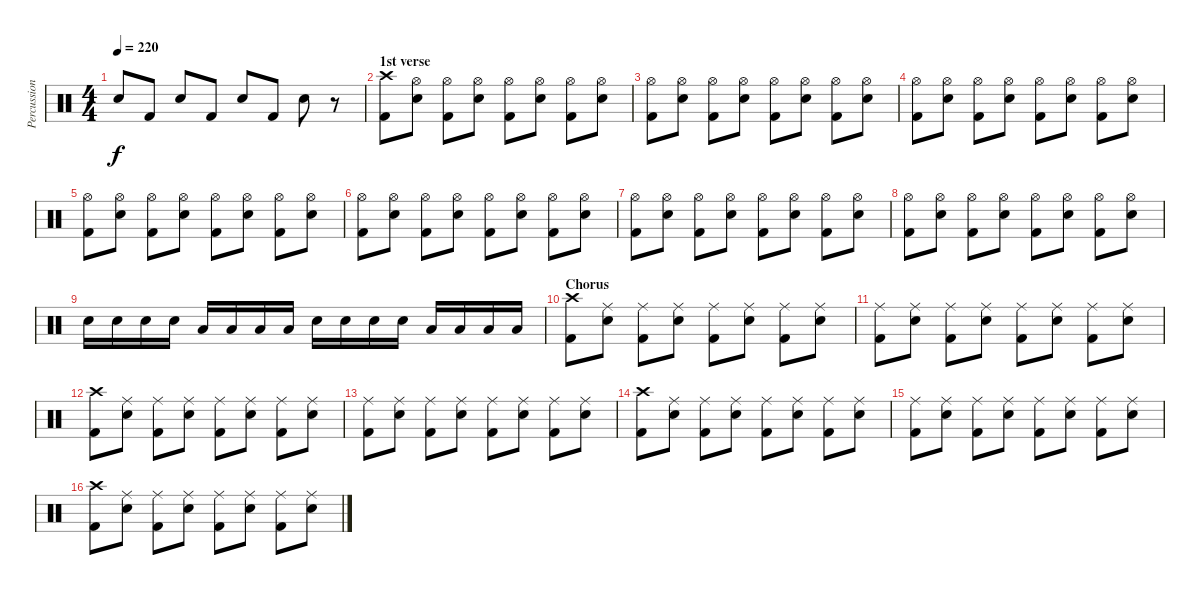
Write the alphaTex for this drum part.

\track ("Percussion" "Percussion") {instrument percussion}
\staff {score}
\articulation defaults
\ts (4 4)
\tempo 220
\clef neutral
\ks c "Electric Snare (hit)".8{dy f} "Kick (hit) 2".8 "Electric Snare (hit)".8 "Kick (hit) 2".8 "Electric Snare (hit)".8 "Kick (hit) 2".8 "Electric Snare (hit)".8
r.8 |
\section ("" "1st verse")
("Crash high (hit)" "Kick (hit) 2").8 ("Hi-Hat (open)" "Electric Snare (hit)").8 ("Hi-Hat (open)" "Kick (hit) 2").8 ("Hi-Hat (open)" "Electric Snare (hit)").8 ("Hi-Hat (open)" "Kick (hit) 2").8 ("Hi-Hat (open)" "Electric Snare (hit)").8 ("Hi-Hat (open)" "Kick (hit) 2").8 ("Hi-Hat (open)" "Electric Snare (hit)").8 |
("Hi-Hat (open)" "Kick (hit) 2").8 ("Hi-Hat (open)" "Electric Snare (hit)").8 ("Hi-Hat (open)" "Kick (hit) 2").8 ("Hi-Hat (open)" "Electric Snare (hit)").8 ("Hi-Hat (open)" "Kick (hit) 2").8 ("Hi-Hat (open)" "Electric Snare (hit)").8 ("Hi-Hat (open)" "Kick (hit) 2").8 ("Hi-Hat (open)" "Electric Snare (hit)").8 |
("Hi-Hat (open)" "Kick (hit) 2").8 ("Hi-Hat (open)" "Electric Snare (hit)").8 ("Hi-Hat (open)" "Kick (hit) 2").8 ("Hi-Hat (open)" "Electric Snare (hit)").8 ("Hi-Hat (open)" "Kick (hit) 2").8 ("Hi-Hat (open)" "Electric Snare (hit)").8 ("Hi-Hat (open)" "Kick (hit) 2").8 ("Hi-Hat (open)" "Electric Snare (hit)").8 |
("Hi-Hat (open)" "Kick (hit) 2").8 ("Hi-Hat (open)" "Electric Snare (hit)").8 ("Hi-Hat (open)" "Kick (hit) 2").8 ("Hi-Hat (open)" "Electric Snare (hit)").8 ("Hi-Hat (open)" "Kick (hit) 2").8 ("Hi-Hat (open)" "Electric Snare (hit)").8 ("Hi-Hat (open)" "Kick (hit) 2").8 ("Hi-Hat (open)" "Electric Snare (hit)").8 |
("Hi-Hat (open)" "Kick (hit) 2").8 ("Hi-Hat (open)" "Electric Snare (hit)").8 ("Hi-Hat (open)" "Kick (hit) 2").8 ("Hi-Hat (open)" "Electric Snare (hit)").8 ("Hi-Hat (open)" "Kick (hit) 2").8 ("Hi-Hat (open)" "Electric Snare (hit)").8 ("Hi-Hat (open)" "Kick (hit) 2").8 ("Hi-Hat (open)" "Electric Snare (hit)").8 |
("Hi-Hat (open)" "Kick (hit) 2").8 ("Hi-Hat (open)" "Electric Snare (hit)").8 ("Hi-Hat (open)" "Kick (hit) 2").8 ("Hi-Hat (open)" "Electric Snare (hit)").8 ("Hi-Hat (open)" "Kick (hit) 2").8 ("Hi-Hat (open)" "Electric Snare (hit)").8 ("Hi-Hat (open)" "Kick (hit) 2").8 ("Hi-Hat (open)" "Electric Snare (hit)").8 |
("Hi-Hat (open)" "Kick (hit) 2").8 ("Hi-Hat (open)" "Electric Snare (hit)").8 ("Hi-Hat (open)" "Kick (hit) 2").8 ("Hi-Hat (open)" "Electric Snare (hit)").8 ("Hi-Hat (open)" "Kick (hit) 2").8 ("Hi-Hat (open)" "Electric Snare (hit)").8 ("Hi-Hat (open)" "Kick (hit) 2").8 ("Hi-Hat (open)" "Electric Snare (hit)").8 |
"Electric Snare (hit)".16 "Electric Snare (hit)".16 "Electric Snare (hit)".16 "Electric Snare (hit)".16 "Low Tom (hit)".16 "Low Tom (hit)".16 "Low Tom (hit)".16 "Low Tom (hit)".16 "Electric Snare (hit)".16 "Electric Snare (hit)".16 "Electric Snare (hit)".16 "Electric Snare (hit)".16 "Low Tom (hit)".16 "Low Tom (hit)".16 "Low Tom (hit)".16 "Low Tom (hit)".16 |
\section ("" "Chorus")
("Crash high (hit)" "Kick (hit) 2").8 ("Ride (middle)" "Electric Snare (hit)").8 ("Ride (middle)" "Kick (hit) 2").8 ("Ride (middle)" "Electric Snare (hit)").8 ("Ride (middle)" "Kick (hit) 2").8 ("Ride (middle)" "Electric Snare (hit)").8 ("Ride (middle)" "Kick (hit) 2").8 ("Ride (middle)" "Electric Snare (hit)").8 |
("Ride (middle)" "Kick (hit) 2").8 ("Ride (middle)" "Electric Snare (hit)").8 ("Ride (middle)" "Kick (hit) 2").8 ("Ride (middle)" "Electric Snare (hit)").8 ("Ride (middle)" "Kick (hit) 2").8 ("Ride (middle)" "Electric Snare (hit)").8 ("Ride (middle)" "Kick (hit) 2").8 ("Ride (middle)" "Electric Snare (hit)").8 |
("Crash high (hit)" "Kick (hit) 2").8 ("Ride (middle)" "Electric Snare (hit)").8 ("Ride (middle)" "Kick (hit) 2").8 ("Ride (middle)" "Electric Snare (hit)").8 ("Ride (middle)" "Kick (hit) 2").8 ("Ride (middle)" "Electric Snare (hit)").8 ("Ride (middle)" "Kick (hit) 2").8 ("Ride (middle)" "Electric Snare (hit)").8 |
("Ride (middle)" "Kick (hit) 2").8 ("Ride (middle)" "Electric Snare (hit)").8 ("Ride (middle)" "Kick (hit) 2").8 ("Ride (middle)" "Electric Snare (hit)").8 ("Ride (middle)" "Kick (hit) 2").8 ("Ride (middle)" "Electric Snare (hit)").8 ("Ride (middle)" "Kick (hit) 2").8 ("Ride (middle)" "Electric Snare (hit)").8 |
("Crash high (hit)" "Kick (hit) 2").8 ("Ride (middle)" "Electric Snare (hit)").8 ("Ride (middle)" "Kick (hit) 2").8 ("Ride (middle)" "Electric Snare (hit)").8 ("Ride (middle)" "Kick (hit) 2").8 ("Ride (middle)" "Electric Snare (hit)").8 ("Ride (middle)" "Kick (hit) 2").8 ("Ride (middle)" "Electric Snare (hit)").8 |
("Ride (middle)" "Kick (hit) 2").8 ("Ride (middle)" "Electric Snare (hit)").8 ("Ride (middle)" "Kick (hit) 2").8 ("Ride (middle)" "Electric Snare (hit)").8 ("Ride (middle)" "Kick (hit) 2").8 ("Ride (middle)" "Electric Snare (hit)").8 ("Ride (middle)" "Kick (hit) 2").8 ("Ride (middle)" "Electric Snare (hit)").8 |
("Crash high (hit)" "Kick (hit) 2").8 ("Ride (middle)" "Electric Snare (hit)").8 ("Ride (middle)" "Kick (hit) 2").8 ("Ride (middle)" "Electric Snare (hit)").8 ("Ride (middle)" "Kick (hit) 2").8 ("Ride (middle)" "Electric Snare (hit)").8 ("Ride (middle)" "Kick (hit) 2").8 ("Ride (middle)" "Electric Snare (hit)").8
